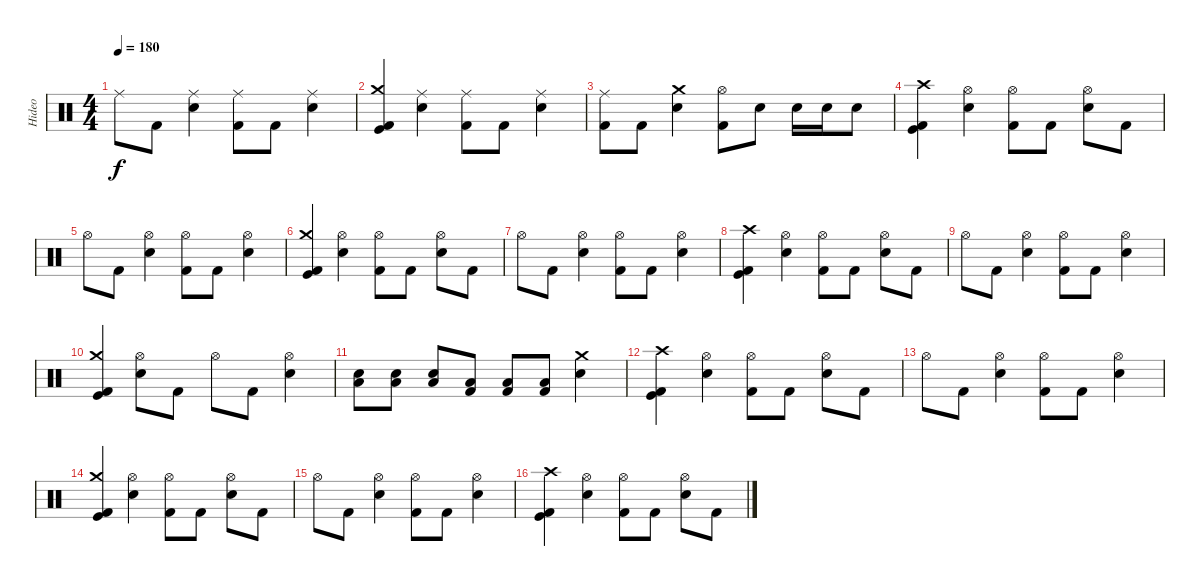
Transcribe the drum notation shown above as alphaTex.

\track ("Hideo" "Hideo") {instrument percussion}
\staff {score}
\articulation defaults
\ts (4 4)
\tempo 180
\clef neutral
\ks c "Ride (middle)".8{dy f} "Kick (hit) 2".8
("Ride (middle)" "Electric Snare (hit)").4 ("Ride (middle)" "Kick (hit) 2").8 "Kick (hit) 2".8 ("Ride (middle)" "Electric Snare (hit)").4 |
("Crash medium (hit)" "Kick (hit) 2" "Kick (hit)").4 ("Ride (middle)" "Electric Snare (hit)").4 ("Ride (middle)" "Kick (hit) 2").8 "Kick (hit) 2".8 ("Ride (middle)" "Electric Snare (hit)").4 |
("Ride (middle)" "Kick (hit) 2").8 "Kick (hit) 2".8 ("Crash medium (hit)" "Electric Snare (hit)").4 ("Hi-Hat (open)" "Kick (hit) 2").8 "Electric Snare (hit)".8 "Electric Snare (hit)".16 "Electric Snare (hit)".16 "Electric Snare (hit)".8 |
("Crash high (hit)" "Kick (hit) 2" "Kick (hit)").4 ("Hi-Hat (open)" "Electric Snare (hit)").4 ("Hi-Hat (open)" "Kick (hit) 2").8 "Kick (hit) 2".8 ("Hi-Hat (open)" "Electric Snare (hit)").8 "Kick (hit) 2".8 |
"Hi-Hat (open)".8 "Kick (hit) 2".8 ("Hi-Hat (open)" "Electric Snare (hit)").4 ("Hi-Hat (open)" "Kick (hit) 2").8 "Kick (hit) 2".8 ("Hi-Hat (open)" "Electric Snare (hit)").4 |
("Crash medium (hit)" "Kick (hit) 2" "Kick (hit)").4 ("Hi-Hat (open)" "Electric Snare (hit)").4 ("Hi-Hat (open)" "Kick (hit) 2").8 "Kick (hit) 2".8 ("Hi-Hat (open)" "Electric Snare (hit)").8 "Kick (hit) 2".8 |
"Hi-Hat (open)".8 "Kick (hit) 2".8 ("Hi-Hat (open)" "Electric Snare (hit)").4 ("Hi-Hat (open)" "Kick (hit) 2").8 "Kick (hit) 2".8 ("Hi-Hat (open)" "Electric Snare (hit)").4 |
("Crash high (hit)" "Kick (hit) 2" "Kick (hit)").4 ("Hi-Hat (open)" "Electric Snare (hit)").4 ("Hi-Hat (open)" "Kick (hit) 2").8 "Kick (hit) 2".8 ("Hi-Hat (open)" "Electric Snare (hit)").8 "Kick (hit) 2".8 |
"Hi-Hat (open)".8 "Kick (hit) 2".8 ("Hi-Hat (open)" "Electric Snare (hit)").4 ("Hi-Hat (open)" "Kick (hit) 2").8 "Kick (hit) 2".8 ("Hi-Hat (open)" "Electric Snare (hit)").4 |
("Crash medium (hit)" "Kick (hit) 2" "Kick (hit)").4 ("Hi-Hat (open)" "Electric Snare (hit)").8 "Kick (hit) 2".8 "Hi-Hat (open)".8 "Kick (hit) 2".8 ("Hi-Hat (open)" "Electric Snare (hit)").4 |
("Low Floor Tom (hit)" "Electric Snare (hit)").8 ("Low Floor Tom (hit)" "Electric Snare (hit)").8 ("Low Floor Tom (hit)" "Electric Snare (hit)").8 ("Low Tom (hit)" "Kick (hit) 2").8 ("Low Tom (hit)" "Kick (hit) 2").8 ("Low Tom (hit)" "Kick (hit) 2").8 ("Crash medium (hit)" "Electric Snare (hit)").4 |
("Crash high (hit)" "Kick (hit) 2" "Kick (hit)").4 ("Hi-Hat (open)" "Electric Snare (hit)").4 ("Hi-Hat (open)" "Kick (hit) 2").8 "Kick (hit) 2".8 ("Hi-Hat (open)" "Electric Snare (hit)").8 "Kick (hit) 2".8 |
"Hi-Hat (open)".8 "Kick (hit) 2".8 ("Hi-Hat (open)" "Electric Snare (hit)").4 ("Hi-Hat (open)" "Kick (hit) 2").8 "Kick (hit) 2".8 ("Hi-Hat (open)" "Electric Snare (hit)").4 |
("Crash medium (hit)" "Kick (hit) 2" "Kick (hit)").4 ("Hi-Hat (open)" "Electric Snare (hit)").4 ("Hi-Hat (open)" "Kick (hit) 2").8 "Kick (hit) 2".8 ("Hi-Hat (open)" "Electric Snare (hit)").8 "Kick (hit) 2".8 |
"Hi-Hat (open)".8 "Kick (hit) 2".8 ("Hi-Hat (open)" "Electric Snare (hit)").4 ("Hi-Hat (open)" "Kick (hit) 2").8 "Kick (hit) 2".8 ("Hi-Hat (open)" "Electric Snare (hit)").4 |
("Crash high (hit)" "Kick (hit) 2" "Kick (hit)").4 ("Hi-Hat (open)" "Electric Snare (hit)").4 ("Hi-Hat (open)" "Kick (hit) 2").8 "Kick (hit) 2".8 ("Hi-Hat (open)" "Electric Snare (hit)").8 "Kick (hit) 2".8
